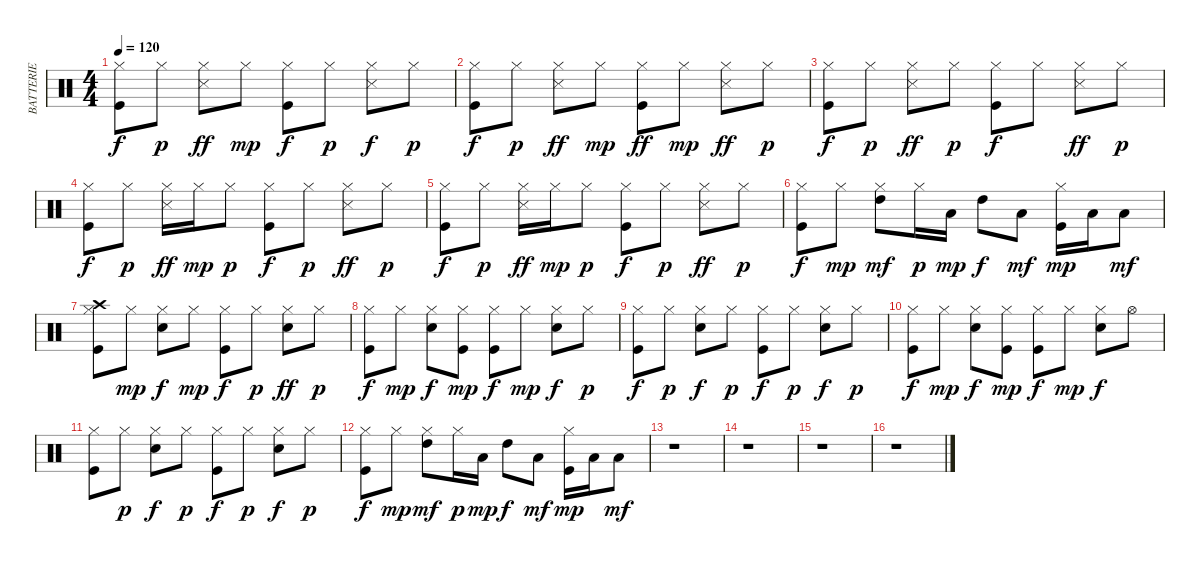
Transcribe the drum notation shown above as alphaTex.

\track ("BATTERIE" "BATTERIE") {instrument percussion}
\staff {score}
\articulation defaults
\ts (4 4)
\tempo 120
\clef neutral
\ks c
("Kick (hit)" "Hi-Hat (closed)").8{dy f} "Hi-Hat (closed)".8{dy p} ("Hi-Hat (closed)" "Snare (side stick) 3").8{dy ff} "Hi-Hat (closed)".8{dy mp} ("Kick (hit)" "Hi-Hat (closed)").8{dy f} "Hi-Hat (closed)".8{dy p} ("Hi-Hat (closed)" "Snare (side stick) 3").8{dy f} "Hi-Hat (closed)".8{dy p} |
("Kick (hit)" "Hi-Hat (closed)").8{dy f} "Hi-Hat (closed)".8{dy p} ("Hi-Hat (closed)" "Snare (side stick) 3").8{dy ff} "Hi-Hat (closed)".8{dy mp} ("Kick (hit)" "Hi-Hat (closed)").8{dy ff} "Hi-Hat (closed)".8{dy mp} ("Hi-Hat (closed)" "Snare (side stick) 3").8{dy ff} "Hi-Hat (closed)".8{dy p} |
("Kick (hit)" "Hi-Hat (closed)").8{dy f} "Hi-Hat (closed)".8{dy p} ("Hi-Hat (closed)" "Snare (side stick) 3").8{dy ff} "Hi-Hat (closed)".8{dy p} ("Kick (hit)" "Hi-Hat (closed)").8{dy f} "Hi-Hat (closed)".8 ("Hi-Hat (closed)" "Snare (side stick) 3").8{dy ff} "Hi-Hat (closed)".8{dy p} |
("Kick (hit)" "Hi-Hat (closed)").8{dy f} "Hi-Hat (closed)".8{dy p} ("Hi-Hat (closed)" "Snare (side stick) 3").16{dy ff} "Hi-Hat (closed)".16{dy mp} "Hi-Hat (closed)".8{dy p} ("Kick (hit)" "Hi-Hat (closed)").8{dy f} "Hi-Hat (closed)".8{dy p} ("Hi-Hat (closed)" "Snare (side stick) 3").8{dy ff} "Hi-Hat (closed)".8{dy p} |
("Kick (hit)" "Hi-Hat (closed)").8{dy f} "Hi-Hat (closed)".8{dy p} ("Hi-Hat (closed)" "Snare (side stick) 3").16{dy ff} "Hi-Hat (closed)".16{dy mp} "Hi-Hat (closed)".8{dy p} ("Kick (hit)" "Hi-Hat (closed)").8{dy f} "Hi-Hat (closed)".8{dy p} ("Hi-Hat (closed)" "Snare (side stick) 3").8{dy ff} "Hi-Hat (closed)".8{dy p} |
("Kick (hit)" "Hi-Hat (closed)").8{dy f} "Hi-Hat (closed)".8{dy mp} ("Hi-Hat (closed)" "High Tom (hit)").8{dy mf} "Hi-Hat (closed)".16{dy p} "Low Tom (hit)".16{dy mp} "High Tom (hit)".8{dy f} "Low Tom (hit)".8{dy mf} ("Kick (hit)" "Hi-Hat (closed)").16{dy mp} "Low Tom (hit)".16 "Low Floor Tom (hit)".8{dy mf} |
("Kick (hit)" "Hi-Hat (closed)" "Crash high (hit)").8 "Hi-Hat (closed)".8{dy mp} ("Snare (hit) 2" "Hi-Hat (closed)").8{dy f} "Hi-Hat (closed)".8{dy mp} ("Kick (hit)" "Hi-Hat (closed)").8{dy f} "Hi-Hat (closed)".8{dy p} ("Snare (hit) 2" "Hi-Hat (closed)").8{dy ff} "Hi-Hat (closed)".8{dy p} |
("Kick (hit)" "Hi-Hat (closed)").8{dy f} "Hi-Hat (closed)".8{dy mp} ("Snare (hit) 2" "Hi-Hat (closed)").8{dy f} ("Kick (hit)" "Hi-Hat (closed)").8{dy mp} ("Kick (hit)" "Hi-Hat (closed)").8{dy f} "Hi-Hat (closed)".8{dy mp} ("Snare (hit) 2" "Hi-Hat (closed)").8{dy f} "Hi-Hat (closed)".8{dy p} |
("Kick (hit)" "Hi-Hat (closed)").8{dy f} "Hi-Hat (closed)".8{dy p} ("Snare (hit) 2" "Hi-Hat (closed)").8{dy f} "Hi-Hat (closed)".8{dy p} ("Kick (hit)" "Hi-Hat (closed)").8{dy f} "Hi-Hat (closed)".8{dy p} ("Snare (hit) 2" "Hi-Hat (closed)").8{dy f} "Hi-Hat (closed)".8{dy p} |
("Kick (hit)" "Hi-Hat (closed)").8{dy f} "Hi-Hat (closed)".8{dy mp} ("Snare (hit) 2" "Hi-Hat (closed)").8{dy f} ("Kick (hit)" "Hi-Hat (closed)").8{dy mp} ("Kick (hit)" "Hi-Hat (closed)").8{dy f} "Hi-Hat (closed)".8{dy mp} ("Snare (hit) 2" "Hi-Hat (closed)").8{dy f} "Hi-Hat (open)".8 |
("Kick (hit)" "Hi-Hat (closed)").8 "Hi-Hat (closed)".8{dy p} ("Snare (hit) 2" "Hi-Hat (closed)").8{dy f} "Hi-Hat (closed)".8{dy p} ("Kick (hit)" "Hi-Hat (closed)").8{dy f} "Hi-Hat (closed)".8{dy p} ("Snare (hit) 2" "Hi-Hat (closed)").8{dy f} "Hi-Hat (closed)".8{dy p} |
("Kick (hit)" "Hi-Hat (closed)").8{dy f} "Hi-Hat (closed)".8{dy mp} ("Hi-Hat (closed)" "High Tom (hit)").8{dy mf} "Hi-Hat (closed)".16{dy p} "Low Tom (hit)".16{dy mp} "High Tom (hit)".8{dy f} "Low Tom (hit)".8{dy mf} ("Kick (hit)" "Hi-Hat (closed)").16{dy mp} "Low Tom (hit)".16 "Low Floor Tom (hit)".8{dy mf} |
r.1 |
r.1 |
r.1 |
r.1
